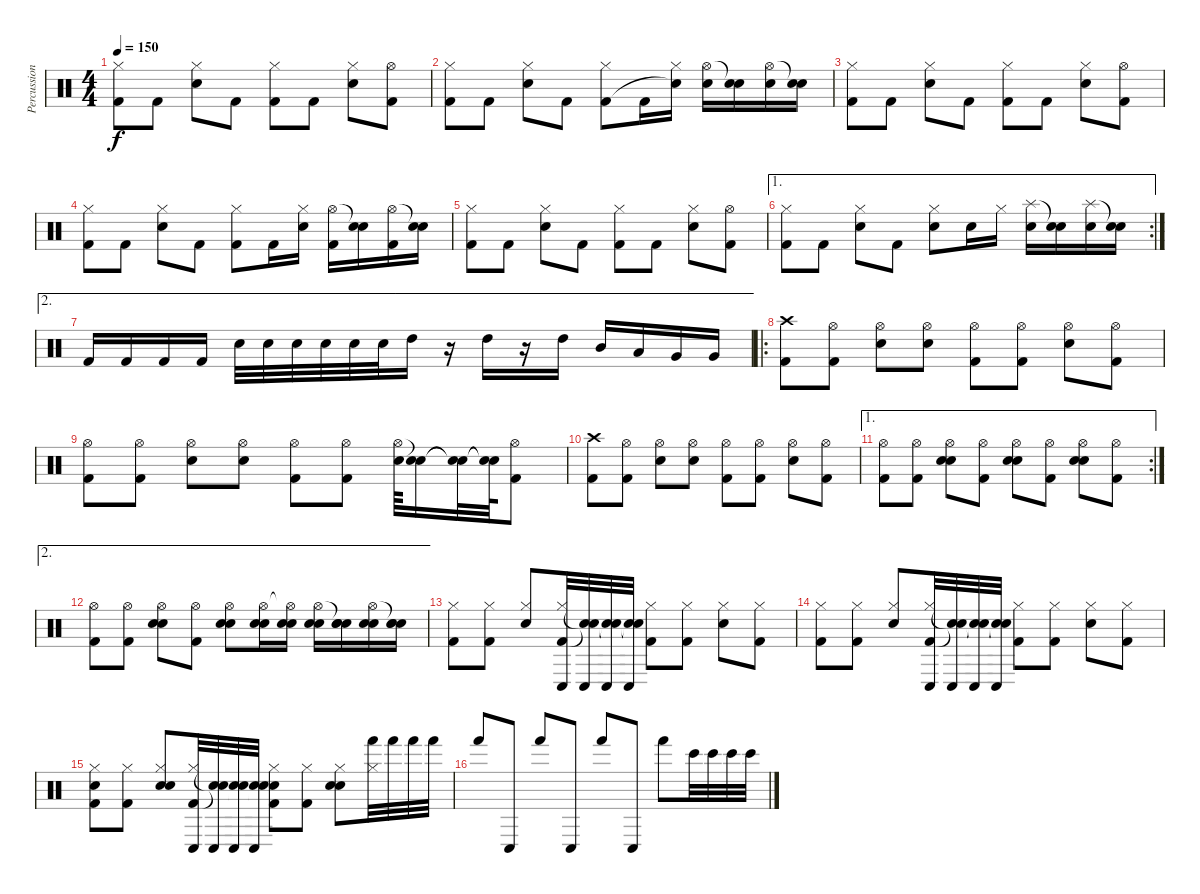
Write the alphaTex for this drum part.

\track ("Percussions" "Percussion") {instrument percussion}
\staff {score}
\articulation defaults
\ts (4 4)
\tempo 150
\clef neutral
\ks c
("Hi-Hat (closed)" "Kick (hit) 2").8{dy f} "Kick (hit) 2".8 ("Hi-Hat (closed)" "Snare (hit) 2").8 "Kick (hit) 2".8 ("Hi-Hat (closed)" "Kick (hit) 2").8 "Kick (hit) 2".8 ("Hi-Hat (closed)" "Snare (hit) 2").8 ("Hi-Hat (open)" "Kick (hit) 2").8 |
("Hi-Hat (closed)" "Kick (hit) 2").8 "Kick (hit) 2".8 ("Hi-Hat (closed)" "Snare (hit) 2").8 "Kick (hit) 2".8 ("Hi-Hat (closed)" "Kick (hit) 2").8 "Kick (hit) 2".16 ("Hi-Hat (closed)" "Snare (hit) 2"{t}).16 ("Hi-Hat (open)" "Snare (hit) 2").16 ("Snare (hit)"{t} "Snare (hit) 2").16 ("Hi-Hat (open)" "Snare (hit) 2").16 ("Snare (hit)"{t} "Snare (hit) 2").16 |
("Hi-Hat (closed)" "Kick (hit) 2").8 "Kick (hit) 2".8 ("Hi-Hat (closed)" "Snare (hit) 2").8 "Kick (hit) 2".8 ("Hi-Hat (closed)" "Kick (hit) 2").8 "Kick (hit) 2".8 ("Hi-Hat (closed)" "Snare (hit) 2").8 ("Hi-Hat (open)" "Kick (hit) 2").8 |
("Hi-Hat (closed)" "Kick (hit) 2").8 "Kick (hit) 2".8 ("Hi-Hat (closed)" "Snare (hit) 2").8 "Kick (hit) 2".8 ("Hi-Hat (closed)" "Kick (hit) 2").8 "Kick (hit) 2".16 ("Hi-Hat (closed)" "Snare (hit) 2").16 ("Hi-Hat (open)" "Kick (hit) 2").16 ("Snare (hit)"{t} "Snare (hit) 2").16 ("Hi-Hat (open)" "Kick (hit) 2").16 ("Snare (hit)"{t} "Snare (hit) 2").16 |
("Hi-Hat (closed)" "Kick (hit) 2").8 "Kick (hit) 2".8 ("Hi-Hat (closed)" "Snare (hit) 2").8 "Kick (hit) 2".8 ("Hi-Hat (closed)" "Kick (hit) 2").8 "Kick (hit) 2".8 ("Hi-Hat (closed)" "Snare (hit) 2").8 ("Hi-Hat (open)" "Kick (hit) 2").8 |
\ae 1
\rc 2
("Hi-Hat (closed)" "Kick (hit) 2").8 "Kick (hit) 2".8 ("Hi-Hat (closed)" "Snare (hit) 2").8 "Kick (hit) 2".8 ("Hi-Hat (closed)" "Snare (hit) 2").8 "Snare (hit) 2".16 "Hi-Hat (closed)".16 ("Splash (hit)" "Snare (hit) 2").16 ("Snare (hit)"{t} "Snare (hit) 2").16 ("Splash (hit)" "Snare (hit) 2").16 ("Snare (hit)"{t} "Snare (hit) 2").16 |
\ae 2 "Kick (hit) 2".16 "Kick (hit) 2".16 "Kick (hit) 2".16 "Kick (hit) 2".16 "Snare (hit) 2".32 "Snare (hit) 2".32 "Snare (hit) 2".32 "Snare (hit) 2".32 "Snare (hit) 2".32 "Snare (hit) 2".32 "High Tom (hit)".16
r.16 "High Tom (hit)".16 r.16 "High Tom (hit)".16 "Mid Tom (hit)".16 "Low Tom (hit)".16 "Very Low Tom (hit)".16 "Very Low Tom (hit)".16 |
\ro
("Crash high (hit)" "Kick (hit) 2").8 ("Hi-Hat (open)" "Kick (hit) 2").8 ("Hi-Hat (open)" "Electric Snare (hit)").8 ("Hi-Hat (open)" "Electric Snare (hit)").8 ("Hi-Hat (open)" "Kick (hit) 2").8 ("Hi-Hat (open)" "Kick (hit) 2").8 ("Hi-Hat (open)" "Electric Snare (hit)").8 ("Hi-Hat (open)" "Kick (hit) 2").8 |
("Hi-Hat (open)" "Kick (hit) 2").8 ("Hi-Hat (open)" "Kick (hit) 2").8 ("Hi-Hat (open)" "Electric Snare (hit)").8 ("Hi-Hat (open)" "Electric Snare (hit)").8 ("Hi-Hat (open)" "Kick (hit) 2").8 ("Hi-Hat (open)" "Kick (hit) 2").8 ("Hi-Hat (open)" "Electric Snare (hit)").64 ("Snare (hit)"{t} "Electric Snare (hit)").16 ("Snare (hit)"{t} "Electric Snare (hit)"{t}).32 ("Snare (hit)"{t} "Snare (hit)"{t}).64 ("Hi-Hat (open)" "Kick (hit) 2").8 |
("Crash high (hit)" "Kick (hit) 2").8 ("Hi-Hat (open)" "Kick (hit) 2").8 ("Hi-Hat (open)" "Electric Snare (hit)").8 ("Hi-Hat (open)" "Electric Snare (hit)").8 ("Hi-Hat (open)" "Kick (hit) 2").8 ("Hi-Hat (open)" "Kick (hit) 2").8 ("Hi-Hat (open)" "Electric Snare (hit)").8 ("Hi-Hat (open)" "Kick (hit) 2").8 |
\ae 1
\rc 2
("Hi-Hat (open)" "Kick (hit) 2").8 ("Hi-Hat (open)" "Kick (hit) 2").8 ("Hi-Hat (open)" "Electric Snare (hit)" "Electric Snare (hit)").8{bu 240} ("Hi-Hat (open)" "Kick (hit) 2").8 ("Hi-Hat (open)" "Electric Snare (hit)" "Electric Snare (hit)").8{bu 240} ("Hi-Hat (open)" "Kick (hit) 2").8 ("Hi-Hat (open)" "Electric Snare (hit)" "Electric Snare (hit)").8{bu 240} ("Hi-Hat (open)" "Kick (hit) 2").8 |
\ae 2
("Hi-Hat (open)" "Kick (hit) 2").8 ("Hi-Hat (open)" "Kick (hit) 2").8 ("Hi-Hat (open)" "Electric Snare (hit)" "Electric Snare (hit)").8{bu 240} ("Hi-Hat (open)" "Kick (hit) 2").8 ("Hi-Hat (open)" "Electric Snare (hit)" "Electric Snare (hit)").8 ("Hi-Hat (open)" "Electric Snare (hit)" "Electric Snare (hit)").16 ("Hi-Hat (open)"{t} "Electric Snare (hit)" "Electric Snare (hit)").16 ("Hi-Hat (open)" "Electric Snare (hit)" "Electric Snare (hit)").16 ("Snare (hit)"{t} "Electric Snare (hit)" "Electric Snare (hit)").16 ("Hi-Hat (open)" "Electric Snare (hit)" "Electric Snare (hit)").16 ("Snare (hit)"{t} "Electric Snare (hit)" "Electric Snare (hit)").16 |
("Hi-Hat (closed)" "Kick (hit) 2").8 ("Hi-Hat (closed)" "Kick (hit) 2").8 ("Hi-Hat (closed)" "Electric Snare (hit)").8 ("Hi-Hat (closed)" "Kick (hit) 2" "Conga low (hit)").32 ("Snare (hit)"{t} "Snare (hit)"{t} "Conga low (hit)").32 ("Snare (hit)"{t} "Snare (hit)"{t} "Conga low (hit)").32 ("Snare (hit)"{t} "Snare (hit)"{t} "Conga low (hit)").32 ("Hi-Hat (closed)" "Kick (hit) 2").8 ("Hi-Hat (closed)" "Kick (hit) 2").8 ("Hi-Hat (closed)" "Electric Snare (hit)").8 ("Hi-Hat (closed)" "Kick (hit) 2").8 |
("Hi-Hat (closed)" "Kick (hit) 2").8 ("Hi-Hat (closed)" "Kick (hit) 2").8 ("Hi-Hat (closed)" "Electric Snare (hit)").8 ("Hi-Hat (closed)" "Kick (hit) 2" "Conga low (hit)").32 ("Snare (hit)"{t} "Snare (hit)"{t} "Conga low (hit)").32 ("Snare (hit)"{t} "Snare (hit)"{t} "Conga low (hit)").32 ("Snare (hit)"{t} "Snare (hit)"{t} "Conga low (hit)").32 ("Hi-Hat (closed)" "Kick (hit) 2").8 ("Hi-Hat (closed)" "Kick (hit) 2").8 ("Hi-Hat (closed)" "Electric Snare (hit)").8 ("Hi-Hat (closed)" "Kick (hit) 2").8 |
("Hi-Hat (closed)" "Hand Clap (hit)" "Kick (hit) 2").8 ("Hi-Hat (closed)" "Kick (hit) 2").8 ("Hi-Hat (closed)" "Hand Clap (hit)" "Electric Snare (hit)").8 ("Hi-Hat (closed)" "Kick (hit) 2" "Conga low (hit)").32 ("Snare (hit)"{t} "Snare (hit)"{t} "Conga low (hit)").32 ("Snare (hit)"{t} "Snare (hit)"{t} "Conga low (hit)").32 ("Snare (hit)"{t} "Snare (hit)"{t} "Conga low (hit)").32 ("Hi-Hat (closed)" "Hand Clap (hit)" "Kick (hit) 2").8 ("Hi-Hat (closed)" "Kick (hit) 2").8 ("Hi-Hat (closed)" "Hand Clap (hit)" "Electric Snare (hit)").8 ("Hi-Hat (closed)" "Hand (hit)").32 "Hand (hit)".32 "Hand (hit)".32 "Hand (hit)".32 |
"Hand (hit)".8 "Conga low (hit)".8 "Hand (hit)".8 "Conga low (hit)".8 "Hand (hit)".8 "Conga low (hit)".8 "Hand (hit)".8 "Bongo High (hit)".32 "Bongo High (hit)".32 "Bongo High (hit)".32 "Bongo High (hit)".32
